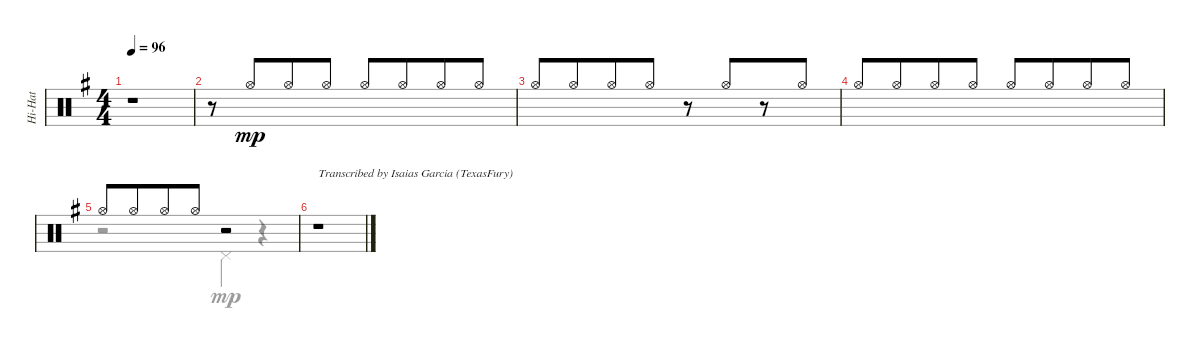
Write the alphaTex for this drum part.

\track ("Hi-Hat" "Hi-Hat") {instrument percussion}
\staff {score}
\articulation defaults
\voice
\ts (4 4)
\tempo 96
\clef neutral
\ks g
r.1{dy mp} |
r.8 "Hi-Hat (open)".8{beam Up beam merge} "Hi-Hat (open)".8{beam Up} "Hi-Hat (open)".8{beam Up beam split} "Hi-Hat (open)".8{beam Up} "Hi-Hat (open)".8{beam Up beam merge} "Hi-Hat (open)".8{beam Up} "Hi-Hat (open)".8{beam Up} |
"Hi-Hat (open)".8{beam Up} "Hi-Hat (open)".8{beam Up beam merge} "Hi-Hat (open)".8{beam Up} "Hi-Hat (open)".8{beam Up beam split} r.8 "Hi-Hat (open)".8{beam Up beam merge} r.8 "Hi-Hat (open)".8{beam Up} |
"Hi-Hat (open)".8{beam Up} "Hi-Hat (open)".8{beam Up beam merge} "Hi-Hat (open)".8{beam Up} "Hi-Hat (open)".8{beam Up beam split} "Hi-Hat (open)".8{beam Up} "Hi-Hat (open)".8{beam Up beam merge} "Hi-Hat (open)".8{beam Up} "Hi-Hat (open)".8{beam Up} |
"Hi-Hat (open)".8 "Hi-Hat (open)".8{beam merge} "Hi-Hat (open)".8 "Hi-Hat (open)".8 r.2 |
r.1{txt "Transcribed by Isaias Garcia (TexasFury)"}
\voice
\clef neutral
\ottava regular
\simile none
\ks g
|
|
|
|
r.2 "Pedal Hi-Hat (hit)".4 r.4 |
